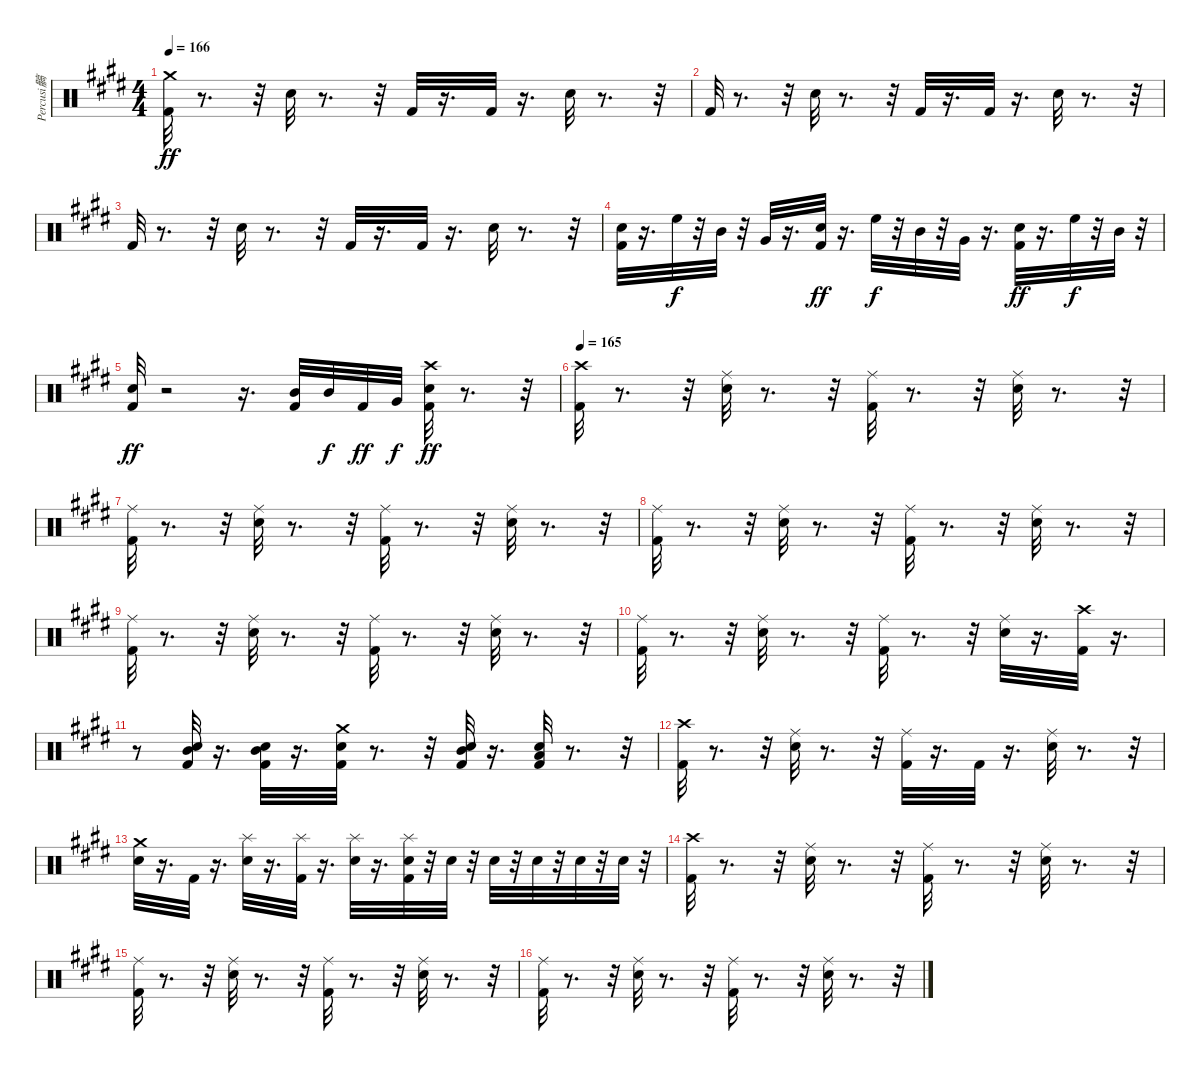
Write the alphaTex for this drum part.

\track ("Percusi髇" "Percusi髇") {instrument percussion}
\staff {score}
\articulation defaults
\ts (4 4)
\tempo 166
\clef neutral
\ks e
("Crash medium (hit)" "Kick (hit) 2").32{dy ff} r.8{d} r.32 "Electric Snare (hit)".32 r.8{d} r.32 "Kick (hit) 2".32 r.16{d} "Kick (hit) 2".32 r.16{d} "Electric Snare (hit)".32 r.8{d} r.32 |
"Kick (hit) 2".32 r.8{d} r.32 "Electric Snare (hit)".32 r.8{d} r.32 "Kick (hit) 2".32 r.16{d} "Kick (hit) 2".32 r.16{d} "Electric Snare (hit)".32 r.8{d} r.32 |
"Kick (hit) 2".32 r.8{d} r.32 "Electric Snare (hit)".32 r.8{d} r.32 "Kick (hit) 2".32 r.16{d} "Kick (hit) 2".32 r.16{d} "Electric Snare (hit)".32 r.8{d} r.32 |
("Kick (hit) 2" "Electric Snare (hit)").32 r.16{d} "High Floor Tom (hit)".32{dy f} r.32 "Mid Tom (hit)".32 r.32 "Very Low Tom (hit)".32 r.16{d} ("Kick (hit) 2" "Electric Snare (hit)").32{dy ff} r.16{d} "High Floor Tom (hit)".32{dy f} r.32 "Mid Tom (hit)".32 r.32 "Very Low Tom (hit)".32 r.16{d} ("Kick (hit) 2" "Electric Snare (hit)").32{dy ff} r.16{d} "High Floor Tom (hit)".32{dy f} r.32 "Mid Tom (hit)".32 r.32 |
("Kick (hit) 2" "Electric Snare (hit)").32{dy ff} r.2 r.16{d} ("Mid Tom (hit)" "Kick (hit) 2").32 "Mid Tom (hit)".32{dy f} "Kick (hit) 2".32{dy ff} "Very Low Tom (hit)".32{dy f} ("Crash high (hit)" "Kick (hit) 2" "Electric Snare (hit)").32{dy ff} r.8{d} r.32 |
\tempo 165
("Crash high (hit)" "Kick (hit) 2").32 r.8{d} r.32 ("Electric Snare (hit)" "Ride (middle)").32 r.8{d} r.32 ("Kick (hit) 2" "Ride (middle)").32 r.8{d} r.32 ("Electric Snare (hit)" "Ride (middle)").32 r.8{d} r.32 |
("Kick (hit) 2" "Ride (middle)").32 r.8{d} r.32 ("Electric Snare (hit)" "Ride (middle)").32 r.8{d} r.32 ("Kick (hit) 2" "Ride (middle)").32 r.8{d} r.32 ("Electric Snare (hit)" "Ride (middle)").32 r.8{d} r.32 |
("Kick (hit) 2" "Ride (middle)").32 r.8{d} r.32 ("Electric Snare (hit)" "Ride (middle)").32 r.8{d} r.32 ("Kick (hit) 2" "Ride (middle)").32 r.8{d} r.32 ("Electric Snare (hit)" "Ride (middle)").32 r.8{d} r.32 |
("Kick (hit) 2" "Ride (middle)").32 r.8{d} r.32 ("Electric Snare (hit)" "Ride (middle)").32 r.8{d} r.32 ("Kick (hit) 2" "Ride (middle)").32 r.8{d} r.32 ("Electric Snare (hit)" "Ride (middle)").32 r.8{d} r.32 |
("Kick (hit) 2" "Ride (middle)").32 r.8{d} r.32 ("Electric Snare (hit)" "Ride (middle)").32 r.8{d} r.32 ("Kick (hit) 2" "Ride (middle)").32 r.8{d} r.32 ("Electric Snare (hit)" "Ride (middle)").32 r.16{d} ("Crash high (hit)" "Kick (hit) 2").32 r.16{d} |
r.8 ("Mid Tom (hit)" "Kick (hit) 2" "Electric Snare (hit)").32 r.16{d} ("Mid Tom (hit)" "Kick (hit) 2" "Electric Snare (hit)").32 r.16{d} ("Crash medium (hit)" "Kick (hit) 2" "Electric Snare (hit)").32 r.8{d} r.32 ("Mid Tom (hit)" "Kick (hit) 2" "Electric Snare (hit)").32 r.16{d} ("Kick (hit) 2" "Low Tom (hit)" "Electric Snare (hit)").32 r.8{d} r.32 |
("Crash high (hit)" "Kick (hit) 2").32 r.8{d} r.32 ("Electric Snare (hit)" "Ride (middle)").32 r.8{d} r.32 ("Kick (hit) 2" "Ride (middle)").32 r.16{d} "Kick (hit) 2".32 r.16{d} ("Electric Snare (hit)" "Ride (middle)").32 r.8{d} r.32 |
("Crash medium (hit)" "Electric Snare (hit)").32 r.16{d} "Kick (hit) 2".32 r.16{d} ("Splash (hit)" "Electric Snare (hit)").32 r.16{d} ("Splash (hit)" "Kick (hit) 2").32 r.16{d} ("Splash (hit)" "Electric Snare (hit)").32 r.16{d} ("Splash (hit)" "Kick (hit) 2" "Electric Snare (hit)").32 r.32 "Electric Snare (hit)".32 r.32 "Electric Snare (hit)".32 r.32 "Electric Snare (hit)".32 r.32 "Electric Snare (hit)".32 r.32 "Electric Snare (hit)".32 r.32 |
("Crash high (hit)" "Kick (hit) 2").32 r.8{d} r.32 ("Electric Snare (hit)" "Ride (middle)").32 r.8{d} r.32 ("Kick (hit) 2" "Ride (middle)").32 r.8{d} r.32 ("Electric Snare (hit)" "Ride (middle)").32 r.8{d} r.32 |
("Kick (hit) 2" "Ride (middle)").32 r.8{d} r.32 ("Electric Snare (hit)" "Ride (middle)").32 r.8{d} r.32 ("Kick (hit) 2" "Ride (middle)").32 r.8{d} r.32 ("Electric Snare (hit)" "Ride (middle)").32 r.8{d} r.32 |
("Kick (hit) 2" "Ride (middle)").32 r.8{d} r.32 ("Electric Snare (hit)" "Ride (middle)").32 r.8{d} r.32 ("Kick (hit) 2" "Ride (middle)").32 r.8{d} r.32 ("Electric Snare (hit)" "Ride (middle)").32 r.8{d} r.32
